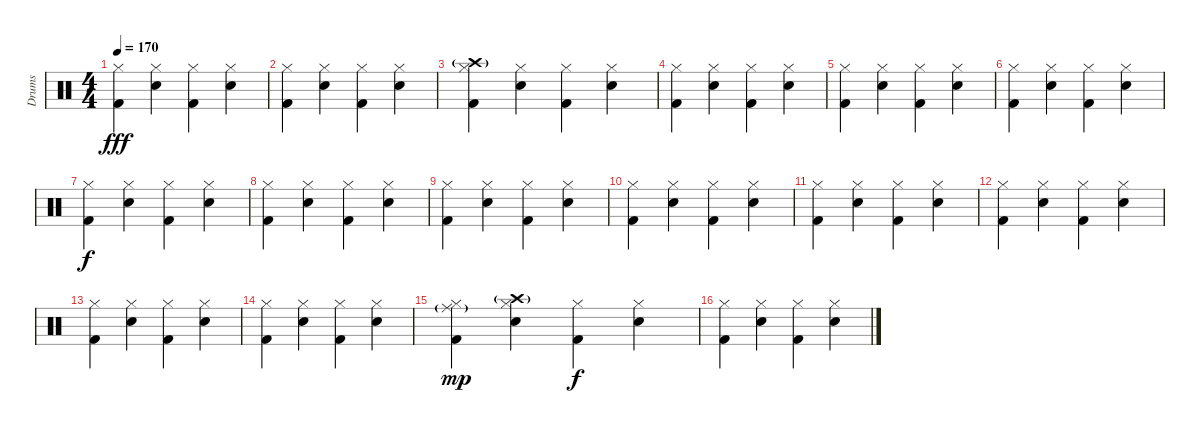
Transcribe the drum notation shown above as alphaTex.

\track ("Drums" "Drums") {instrument percussion}
\staff {score}
\articulation defaults
\ts (4 4)
\tempo 170
\clef neutral
\ks c
("Hi-Hat (closed)" "Kick (hit) 2").4{dy fff} ("Hi-Hat (closed)" "Electric Snare (hit)").4 ("Hi-Hat (closed)" "Kick (hit) 2").4 ("Hi-Hat (closed)" "Electric Snare (hit)").4 |
("Hi-Hat (closed)" "Kick (hit) 2").4 ("Hi-Hat (closed)" "Electric Snare (hit)").4 ("Hi-Hat (closed)" "Kick (hit) 2").4 ("Hi-Hat (closed)" "Electric Snare (hit)").4 |
("Crash high (hit)"{g} "Hi-Hat (closed)" "Kick (hit) 2").4 ("Hi-Hat (closed)" "Electric Snare (hit)").4 ("Hi-Hat (closed)" "Kick (hit) 2").4 ("Hi-Hat (closed)" "Electric Snare (hit)").4 |
("Hi-Hat (closed)" "Kick (hit) 2").4 ("Hi-Hat (closed)" "Electric Snare (hit)").4 ("Hi-Hat (closed)" "Kick (hit) 2").4 ("Hi-Hat (closed)" "Electric Snare (hit)").4 |
("Hi-Hat (closed)" "Kick (hit) 2").4 ("Hi-Hat (closed)" "Electric Snare (hit)").4 ("Hi-Hat (closed)" "Kick (hit) 2").4 ("Hi-Hat (closed)" "Electric Snare (hit)").4 |
("Hi-Hat (closed)" "Kick (hit) 2").4 ("Hi-Hat (closed)" "Electric Snare (hit)").4 ("Hi-Hat (closed)" "Kick (hit) 2").4 ("Hi-Hat (closed)" "Electric Snare (hit)").4 |
("Hi-Hat (closed)" "Kick (hit) 2").4{dy f} ("Hi-Hat (closed)" "Electric Snare (hit)").4 ("Hi-Hat (closed)" "Kick (hit) 2").4 ("Hi-Hat (closed)" "Electric Snare (hit)").4 |
("Hi-Hat (closed)" "Kick (hit) 2").4 ("Hi-Hat (closed)" "Electric Snare (hit)").4 ("Hi-Hat (closed)" "Kick (hit) 2").4 ("Hi-Hat (closed)" "Electric Snare (hit)").4 |
("Hi-Hat (closed)" "Kick (hit) 2").4 ("Hi-Hat (closed)" "Electric Snare (hit)").4 ("Hi-Hat (closed)" "Kick (hit) 2").4 ("Hi-Hat (closed)" "Electric Snare (hit)").4 |
("Hi-Hat (closed)" "Kick (hit) 2").4 ("Hi-Hat (closed)" "Electric Snare (hit)").4 ("Hi-Hat (closed)" "Kick (hit) 2").4 ("Hi-Hat (closed)" "Electric Snare (hit)").4 |
("Hi-Hat (closed)" "Kick (hit) 2").4 ("Hi-Hat (closed)" "Electric Snare (hit)").4 ("Hi-Hat (closed)" "Kick (hit) 2").4 ("Hi-Hat (closed)" "Electric Snare (hit)").4 |
("Hi-Hat (closed)" "Kick (hit) 2").4 ("Hi-Hat (closed)" "Electric Snare (hit)").4 ("Hi-Hat (closed)" "Kick (hit) 2").4 ("Hi-Hat (closed)" "Electric Snare (hit)").4 |
("Hi-Hat (closed)" "Kick (hit) 2").4 ("Hi-Hat (closed)" "Electric Snare (hit)").4 ("Hi-Hat (closed)" "Kick (hit) 2").4 ("Hi-Hat (closed)" "Electric Snare (hit)").4 |
("Hi-Hat (closed)" "Kick (hit) 2").4 ("Hi-Hat (closed)" "Electric Snare (hit)").4 ("Hi-Hat (closed)" "Kick (hit) 2").4 ("Hi-Hat (closed)" "Electric Snare (hit)").4 |
("Ride (middle)"{g} "Hi-Hat (closed)" "Kick (hit) 2").4{dy mp} ("Crash high (hit)"{g} "Hi-Hat (closed)" "Electric Snare (hit)").4 ("Hi-Hat (closed)" "Kick (hit) 2").4{dy f} ("Hi-Hat (closed)" "Electric Snare (hit)").4 |
("Hi-Hat (closed)" "Kick (hit) 2").4 ("Hi-Hat (closed)" "Electric Snare (hit)").4 ("Hi-Hat (closed)" "Kick (hit) 2").4 ("Hi-Hat (closed)" "Electric Snare (hit)").4
